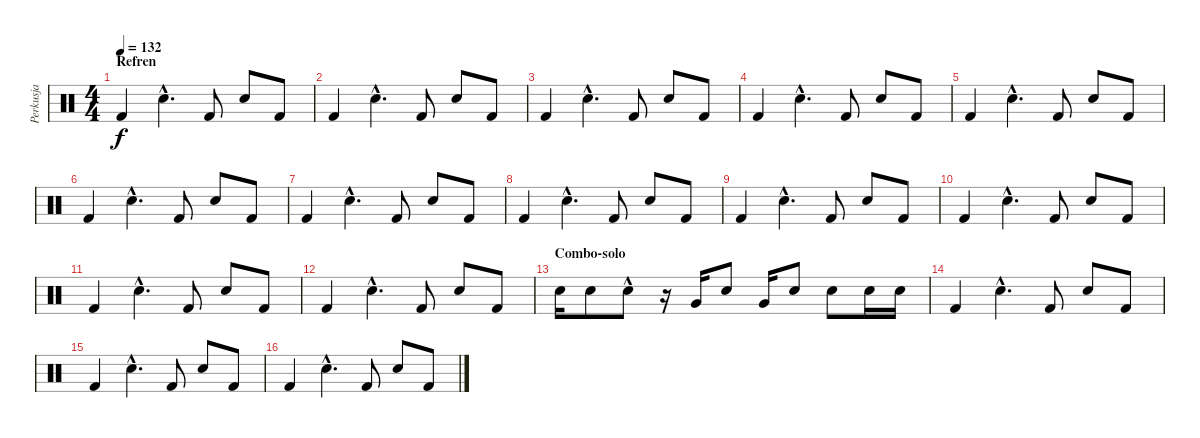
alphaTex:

\track ("Perkusja" "Perkusja") {instrument percussion}
\staff {score}
\articulation defaults
\ts (4 4)
\section ("" "Refren")
\tempo 132
\clef neutral
\ks c "Kick (hit) 2".4{dy f} "Snare (hit) 2"{hac}.4{d} "Kick (hit) 2".8 "Snare (hit) 2".8 "Kick (hit) 2".8
|
"Kick (hit) 2".4 "Snare (hit) 2"{hac}.4{d} "Kick (hit) 2".8 "Snare (hit) 2".8 "Kick (hit) 2".8 |
"Kick (hit) 2".4 "Snare (hit) 2"{hac}.4{d} "Kick (hit) 2".8 "Snare (hit) 2".8 "Kick (hit) 2".8 |
"Kick (hit) 2".4 "Snare (hit) 2"{hac}.4{d} "Kick (hit) 2".8 "Snare (hit) 2".8 "Kick (hit) 2".8 |
"Kick (hit) 2".4 "Snare (hit) 2"{hac}.4{d} "Kick (hit) 2".8 "Snare (hit) 2".8 "Kick (hit) 2".8 |
"Kick (hit) 2".4 "Snare (hit) 2"{hac}.4{d} "Kick (hit) 2".8 "Snare (hit) 2".8 "Kick (hit) 2".8 |
"Kick (hit) 2".4 "Snare (hit) 2"{hac}.4{d} "Kick (hit) 2".8 "Snare (hit) 2".8 "Kick (hit) 2".8 |
"Kick (hit) 2".4 "Snare (hit) 2"{hac}.4{d} "Kick (hit) 2".8 "Snare (hit) 2".8 "Kick (hit) 2".8 |
"Kick (hit) 2".4 "Snare (hit) 2"{hac}.4{d} "Kick (hit) 2".8 "Snare (hit) 2".8 "Kick (hit) 2".8 |
"Kick (hit) 2".4 "Snare (hit) 2"{hac}.4{d} "Kick (hit) 2".8 "Snare (hit) 2".8 "Kick (hit) 2".8 |
"Kick (hit) 2".4 "Snare (hit) 2"{hac}.4{d} "Kick (hit) 2".8 "Snare (hit) 2".8 "Kick (hit) 2".8 |
"Kick (hit) 2".4 "Snare (hit) 2"{hac}.4{d} "Kick (hit) 2".8 "Snare (hit) 2".8 "Kick (hit) 2".8 |
\section ("" "Combo-solo")
"Snare (hit) 2".16 "Snare (hit) 2".8 "Snare (hit) 2"{hac}.8 r.16 "Very Low Tom (hit)".16 "Snare (hit) 2".8 "Very Low Tom (hit)".16 "Snare (hit) 2".8 "Snare (hit) 2".8 "Snare (hit) 2".16 "Snare (hit) 2".16 |
"Kick (hit) 2".4 "Snare (hit) 2"{hac}.4{d} "Kick (hit) 2".8 "Snare (hit) 2".8 "Kick (hit) 2".8 |
"Kick (hit) 2".4 "Snare (hit) 2"{hac}.4{d} "Kick (hit) 2".8 "Snare (hit) 2".8 "Kick (hit) 2".8 |
"Kick (hit) 2".4 "Snare (hit) 2"{hac}.4{d} "Kick (hit) 2".8 "Snare (hit) 2".8 "Kick (hit) 2".8
